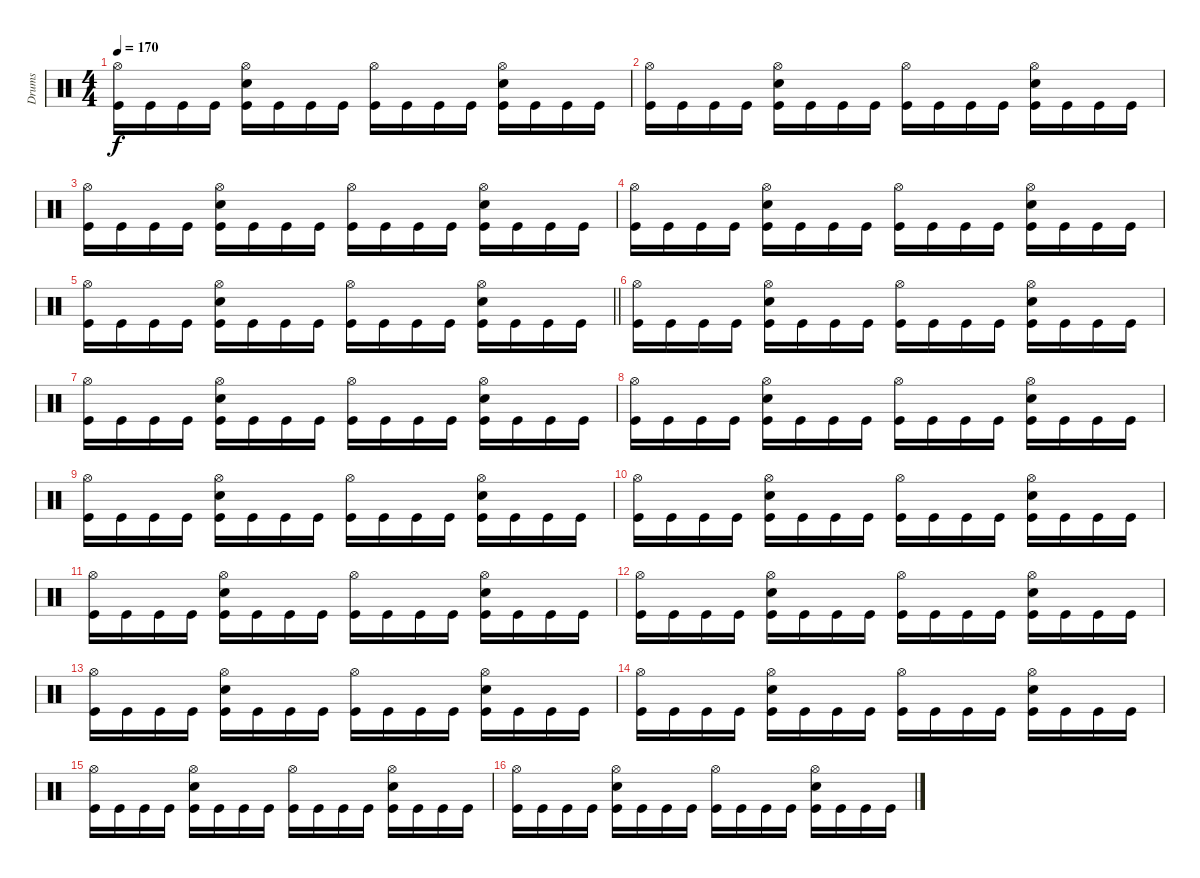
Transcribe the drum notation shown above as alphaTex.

\track ("Drums" "Drums") {instrument percussion}
\staff {score}
\articulation defaults
\ts (4 4)
\tempo 170
\clef neutral
\ks c
("Hi-Hat (open)" "Kick (hit)").16{dy f} "Kick (hit)".16 "Kick (hit)".16 "Kick (hit)".16 ("Hi-Hat (open)" "Snare (hit) 2" "Kick (hit)").16 "Kick (hit)".16 "Kick (hit)".16 "Kick (hit)".16 ("Hi-Hat (open)" "Kick (hit)").16 "Kick (hit)".16 "Kick (hit)".16 "Kick (hit)".16 ("Hi-Hat (open)" "Snare (hit) 2" "Kick (hit)").16 "Kick (hit)".16 "Kick (hit)".16 "Kick (hit)".16 |
("Hi-Hat (open)" "Kick (hit)").16 "Kick (hit)".16 "Kick (hit)".16 "Kick (hit)".16 ("Hi-Hat (open)" "Snare (hit) 2" "Kick (hit)").16 "Kick (hit)".16 "Kick (hit)".16 "Kick (hit)".16 ("Hi-Hat (open)" "Kick (hit)").16 "Kick (hit)".16 "Kick (hit)".16 "Kick (hit)".16 ("Hi-Hat (open)" "Snare (hit) 2" "Kick (hit)").16 "Kick (hit)".16 "Kick (hit)".16 "Kick (hit)".16 |
("Hi-Hat (open)" "Kick (hit)").16 "Kick (hit)".16 "Kick (hit)".16 "Kick (hit)".16 ("Hi-Hat (open)" "Snare (hit) 2" "Kick (hit)").16 "Kick (hit)".16 "Kick (hit)".16 "Kick (hit)".16 ("Hi-Hat (open)" "Kick (hit)").16 "Kick (hit)".16 "Kick (hit)".16 "Kick (hit)".16 ("Hi-Hat (open)" "Snare (hit) 2" "Kick (hit)").16 "Kick (hit)".16 "Kick (hit)".16 "Kick (hit)".16 |
("Hi-Hat (open)" "Kick (hit)").16 "Kick (hit)".16 "Kick (hit)".16 "Kick (hit)".16 ("Hi-Hat (open)" "Snare (hit) 2" "Kick (hit)").16 "Kick (hit)".16 "Kick (hit)".16 "Kick (hit)".16 ("Hi-Hat (open)" "Kick (hit)").16 "Kick (hit)".16 "Kick (hit)".16 "Kick (hit)".16 ("Hi-Hat (open)" "Snare (hit) 2" "Kick (hit)").16 "Kick (hit)".16 "Kick (hit)".16 "Kick (hit)".16 |
\barLineRight lightlight
("Hi-Hat (open)" "Kick (hit)").16 "Kick (hit)".16 "Kick (hit)".16 "Kick (hit)".16 ("Hi-Hat (open)" "Snare (hit) 2" "Kick (hit)").16 "Kick (hit)".16 "Kick (hit)".16 "Kick (hit)".16 ("Hi-Hat (open)" "Kick (hit)").16 "Kick (hit)".16 "Kick (hit)".16 "Kick (hit)".16 ("Hi-Hat (open)" "Snare (hit) 2" "Kick (hit)").16 "Kick (hit)".16 "Kick (hit)".16 "Kick (hit)".16 |
("Hi-Hat (open)" "Kick (hit)").16 "Kick (hit)".16 "Kick (hit)".16 "Kick (hit)".16 ("Hi-Hat (open)" "Snare (hit) 2" "Kick (hit)").16 "Kick (hit)".16 "Kick (hit)".16 "Kick (hit)".16 ("Hi-Hat (open)" "Kick (hit)").16 "Kick (hit)".16 "Kick (hit)".16 "Kick (hit)".16 ("Hi-Hat (open)" "Snare (hit) 2" "Kick (hit)").16 "Kick (hit)".16 "Kick (hit)".16 "Kick (hit)".16 |
("Hi-Hat (open)" "Kick (hit)").16 "Kick (hit)".16 "Kick (hit)".16 "Kick (hit)".16 ("Hi-Hat (open)" "Snare (hit) 2" "Kick (hit)").16 "Kick (hit)".16 "Kick (hit)".16 "Kick (hit)".16 ("Hi-Hat (open)" "Kick (hit)").16 "Kick (hit)".16 "Kick (hit)".16 "Kick (hit)".16 ("Hi-Hat (open)" "Snare (hit) 2" "Kick (hit)").16 "Kick (hit)".16 "Kick (hit)".16 "Kick (hit)".16 |
("Hi-Hat (open)" "Kick (hit)").16 "Kick (hit)".16 "Kick (hit)".16 "Kick (hit)".16 ("Hi-Hat (open)" "Snare (hit) 2" "Kick (hit)").16 "Kick (hit)".16 "Kick (hit)".16 "Kick (hit)".16 ("Hi-Hat (open)" "Kick (hit)").16 "Kick (hit)".16 "Kick (hit)".16 "Kick (hit)".16 ("Hi-Hat (open)" "Snare (hit) 2" "Kick (hit)").16 "Kick (hit)".16 "Kick (hit)".16 "Kick (hit)".16 |
("Hi-Hat (open)" "Kick (hit)").16 "Kick (hit)".16 "Kick (hit)".16 "Kick (hit)".16 ("Hi-Hat (open)" "Snare (hit) 2" "Kick (hit)").16 "Kick (hit)".16 "Kick (hit)".16 "Kick (hit)".16 ("Hi-Hat (open)" "Kick (hit)").16 "Kick (hit)".16 "Kick (hit)".16 "Kick (hit)".16 ("Hi-Hat (open)" "Snare (hit) 2" "Kick (hit)").16 "Kick (hit)".16 "Kick (hit)".16 "Kick (hit)".16 |
("Hi-Hat (open)" "Kick (hit)").16 "Kick (hit)".16 "Kick (hit)".16 "Kick (hit)".16 ("Hi-Hat (open)" "Snare (hit) 2" "Kick (hit)").16 "Kick (hit)".16 "Kick (hit)".16 "Kick (hit)".16 ("Hi-Hat (open)" "Kick (hit)").16 "Kick (hit)".16 "Kick (hit)".16 "Kick (hit)".16 ("Hi-Hat (open)" "Snare (hit) 2" "Kick (hit)").16 "Kick (hit)".16 "Kick (hit)".16 "Kick (hit)".16 |
("Hi-Hat (open)" "Kick (hit)").16 "Kick (hit)".16 "Kick (hit)".16 "Kick (hit)".16 ("Hi-Hat (open)" "Snare (hit) 2" "Kick (hit)").16 "Kick (hit)".16 "Kick (hit)".16 "Kick (hit)".16 ("Hi-Hat (open)" "Kick (hit)").16 "Kick (hit)".16 "Kick (hit)".16 "Kick (hit)".16 ("Hi-Hat (open)" "Snare (hit) 2" "Kick (hit)").16 "Kick (hit)".16 "Kick (hit)".16 "Kick (hit)".16 |
("Hi-Hat (open)" "Kick (hit)").16 "Kick (hit)".16 "Kick (hit)".16 "Kick (hit)".16 ("Hi-Hat (open)" "Snare (hit) 2" "Kick (hit)").16 "Kick (hit)".16 "Kick (hit)".16 "Kick (hit)".16 ("Hi-Hat (open)" "Kick (hit)").16 "Kick (hit)".16 "Kick (hit)".16 "Kick (hit)".16 ("Hi-Hat (open)" "Snare (hit) 2" "Kick (hit)").16 "Kick (hit)".16 "Kick (hit)".16 "Kick (hit)".16 |
("Hi-Hat (open)" "Kick (hit)").16 "Kick (hit)".16 "Kick (hit)".16 "Kick (hit)".16 ("Hi-Hat (open)" "Snare (hit) 2" "Kick (hit)").16 "Kick (hit)".16 "Kick (hit)".16 "Kick (hit)".16 ("Hi-Hat (open)" "Kick (hit)").16 "Kick (hit)".16 "Kick (hit)".16 "Kick (hit)".16 ("Hi-Hat (open)" "Snare (hit) 2" "Kick (hit)").16 "Kick (hit)".16 "Kick (hit)".16 "Kick (hit)".16 |
("Hi-Hat (open)" "Kick (hit)").16 "Kick (hit)".16 "Kick (hit)".16 "Kick (hit)".16 ("Hi-Hat (open)" "Snare (hit) 2" "Kick (hit)").16 "Kick (hit)".16 "Kick (hit)".16 "Kick (hit)".16 ("Hi-Hat (open)" "Kick (hit)").16 "Kick (hit)".16 "Kick (hit)".16 "Kick (hit)".16 ("Hi-Hat (open)" "Snare (hit) 2" "Kick (hit)").16 "Kick (hit)".16 "Kick (hit)".16 "Kick (hit)".16 |
("Hi-Hat (open)" "Kick (hit)").16 "Kick (hit)".16 "Kick (hit)".16 "Kick (hit)".16 ("Hi-Hat (open)" "Snare (hit) 2" "Kick (hit)").16 "Kick (hit)".16 "Kick (hit)".16 "Kick (hit)".16 ("Hi-Hat (open)" "Kick (hit)").16 "Kick (hit)".16 "Kick (hit)".16 "Kick (hit)".16 ("Hi-Hat (open)" "Snare (hit) 2" "Kick (hit)").16 "Kick (hit)".16 "Kick (hit)".16 "Kick (hit)".16 |
("Hi-Hat (open)" "Kick (hit)").16 "Kick (hit)".16 "Kick (hit)".16 "Kick (hit)".16 ("Hi-Hat (open)" "Snare (hit) 2" "Kick (hit)").16 "Kick (hit)".16 "Kick (hit)".16 "Kick (hit)".16 ("Hi-Hat (open)" "Kick (hit)").16 "Kick (hit)".16 "Kick (hit)".16 "Kick (hit)".16 ("Hi-Hat (open)" "Snare (hit) 2" "Kick (hit)").16 "Kick (hit)".16 "Kick (hit)".16 "Kick (hit)".16
